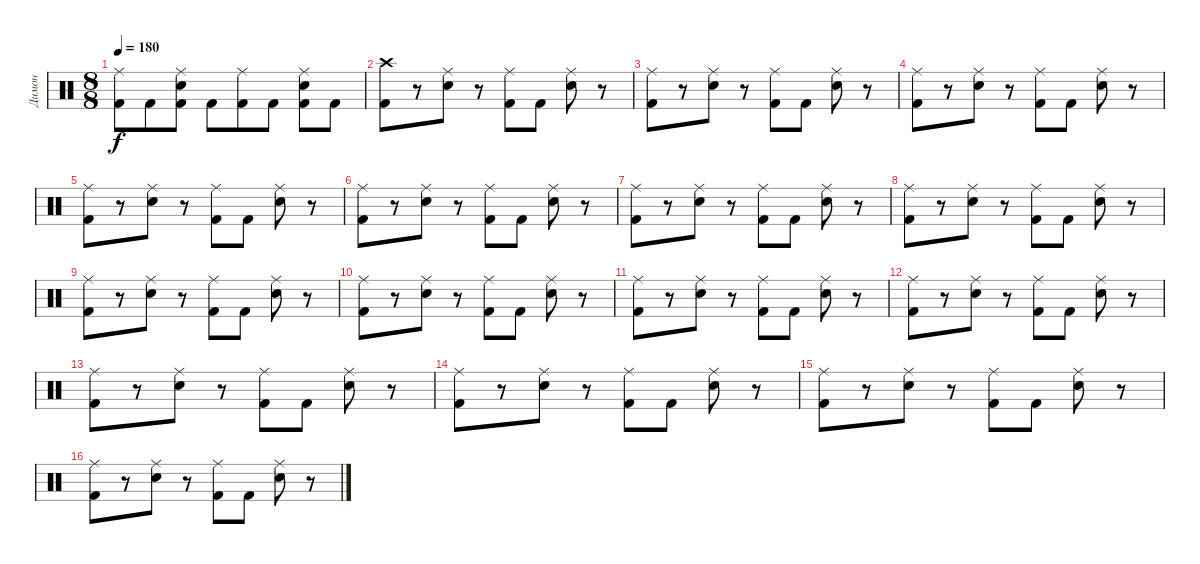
\track ("Димон" "Димон") {instrument percussion}
\staff {score}
\articulation defaults
\ts (8 8)
\tempo 180
\clef neutral
\ks c
("Ride (middle)" "Kick (hit) 2").8{dy f} "Kick (hit) 2".8 ("Electric Snare (hit)" "Ride (middle)" "Kick (hit) 2").8 "Kick (hit) 2".8 ("Ride (middle)" "Kick (hit) 2").8 "Kick (hit) 2".8 ("Electric Snare (hit)" "Ride (middle)" "Kick (hit) 2").8 "Kick (hit) 2".8 |
("Kick (hit) 2" "Crash high (hit)").8 r.8 ("Electric Snare (hit)" "Ride (middle)").8 r.8 ("Kick (hit) 2" "Ride (middle)").8 "Kick (hit) 2".8 ("Electric Snare (hit)" "Ride (middle)").8 r.8 |
("Kick (hit) 2" "Ride (middle)").8 r.8 ("Electric Snare (hit)" "Ride (middle)").8 r.8 ("Kick (hit) 2" "Ride (middle)").8 "Kick (hit) 2".8 ("Electric Snare (hit)" "Ride (middle)").8 r.8 |
("Kick (hit) 2" "Ride (middle)").8 r.8 ("Electric Snare (hit)" "Ride (middle)").8 r.8 ("Kick (hit) 2" "Ride (middle)").8 "Kick (hit) 2".8 ("Electric Snare (hit)" "Ride (middle)").8 r.8 |
("Kick (hit) 2" "Ride (middle)").8 r.8 ("Electric Snare (hit)" "Ride (middle)").8 r.8 ("Kick (hit) 2" "Ride (middle)").8 "Kick (hit) 2".8 ("Electric Snare (hit)" "Ride (middle)").8 r.8 |
("Kick (hit) 2" "Ride (middle)").8 r.8 ("Electric Snare (hit)" "Ride (middle)").8 r.8 ("Kick (hit) 2" "Ride (middle)").8 "Kick (hit) 2".8 ("Electric Snare (hit)" "Ride (middle)").8 r.8 |
("Kick (hit) 2" "Ride (middle)").8 r.8 ("Electric Snare (hit)" "Ride (middle)").8 r.8 ("Kick (hit) 2" "Ride (middle)").8 "Kick (hit) 2".8 ("Electric Snare (hit)" "Ride (middle)").8 r.8 |
("Kick (hit) 2" "Ride (middle)").8 r.8 ("Electric Snare (hit)" "Ride (middle)").8 r.8 ("Kick (hit) 2" "Ride (middle)").8 "Kick (hit) 2".8 ("Electric Snare (hit)" "Ride (middle)").8 r.8 |
("Kick (hit) 2" "Ride (middle)").8 r.8 ("Electric Snare (hit)" "Ride (middle)").8 r.8 ("Kick (hit) 2" "Ride (middle)").8 "Kick (hit) 2".8 ("Electric Snare (hit)" "Ride (middle)").8 r.8 |
("Kick (hit) 2" "Ride (middle)").8 r.8 ("Electric Snare (hit)" "Ride (middle)").8 r.8 ("Kick (hit) 2" "Ride (middle)").8 "Kick (hit) 2".8 ("Electric Snare (hit)" "Ride (middle)").8 r.8 |
("Kick (hit) 2" "Ride (middle)").8 r.8 ("Electric Snare (hit)" "Ride (middle)").8 r.8 ("Kick (hit) 2" "Ride (middle)").8 "Kick (hit) 2".8 ("Electric Snare (hit)" "Ride (middle)").8 r.8 |
("Kick (hit) 2" "Ride (middle)").8 r.8 ("Electric Snare (hit)" "Ride (middle)").8 r.8 ("Kick (hit) 2" "Ride (middle)").8 "Kick (hit) 2".8 ("Electric Snare (hit)" "Ride (middle)").8 r.8 |
("Kick (hit) 2" "Ride (middle)").8 r.8 ("Electric Snare (hit)" "Ride (middle)").8 r.8 ("Kick (hit) 2" "Ride (middle)").8 "Kick (hit) 2".8 ("Electric Snare (hit)" "Ride (middle)").8 r.8 |
("Kick (hit) 2" "Ride (middle)").8 r.8 ("Electric Snare (hit)" "Ride (middle)").8 r.8 ("Kick (hit) 2" "Ride (middle)").8 "Kick (hit) 2".8 ("Electric Snare (hit)" "Ride (middle)").8 r.8 |
("Kick (hit) 2" "Ride (middle)").8 r.8 ("Electric Snare (hit)" "Ride (middle)").8 r.8 ("Kick (hit) 2" "Ride (middle)").8 "Kick (hit) 2".8 ("Electric Snare (hit)" "Ride (middle)").8 r.8 |
("Kick (hit) 2" "Ride (middle)").8 r.8 ("Electric Snare (hit)" "Ride (middle)").8 r.8 ("Kick (hit) 2" "Ride (middle)").8 "Kick (hit) 2".8 ("Electric Snare (hit)" "Ride (middle)").8 r.8
